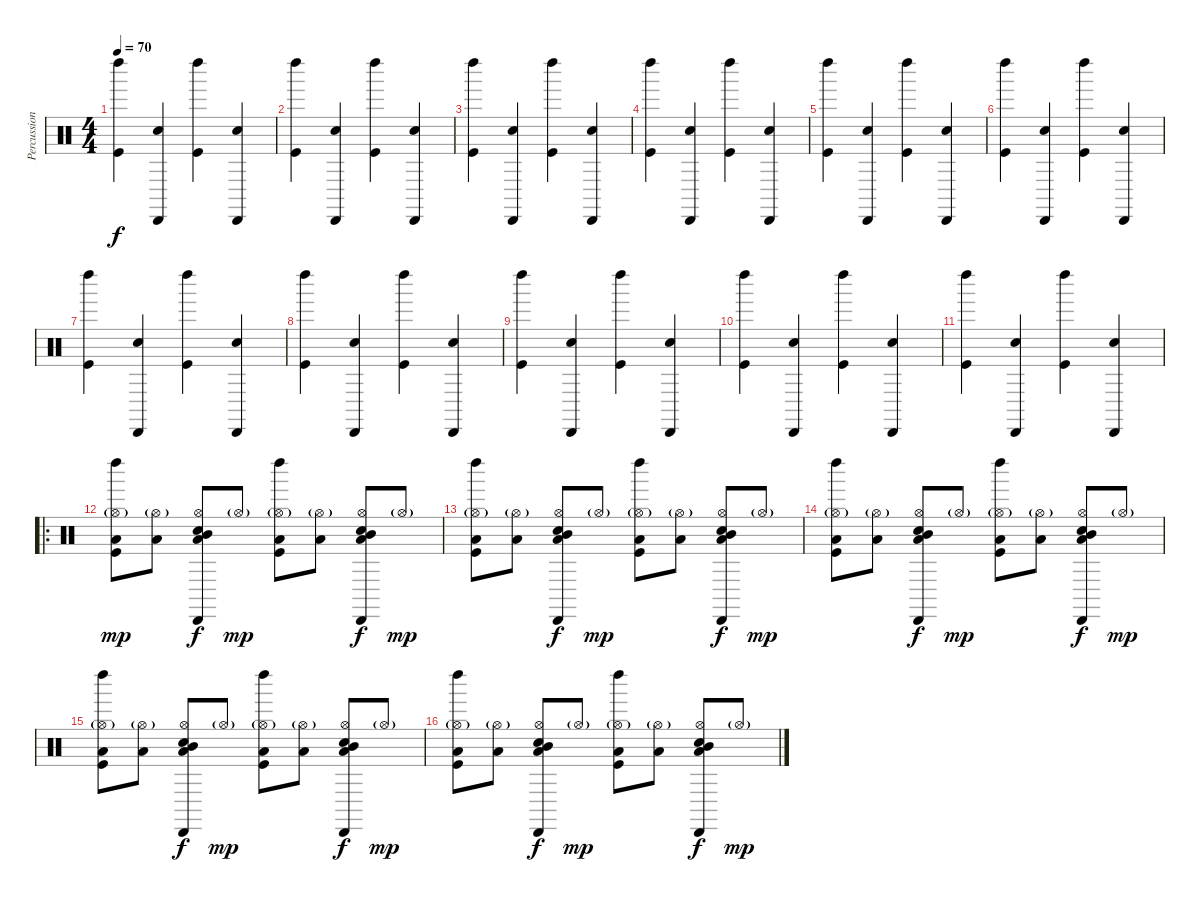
\track ("Percussions" "Percussion") {instrument percussion}
\staff {score}
\articulation defaults
\ts (4 4)
\tempo 70
\clef neutral
\ks c
("Left Maraca (hit)" "Kick (hit)").4{dy f} ("Cabasa (hit)" "Snare (hit) 2").4 ("Left Maraca (hit)" "Kick (hit)").4 ("Snare (hit) 2" "Cabasa (hit)").4 |
("Left Maraca (hit)" "Kick (hit)").4 ("Cabasa (hit)" "Snare (hit) 2").4 ("Left Maraca (hit)" "Kick (hit)").4 ("Snare (hit) 2" "Cabasa (hit)").4 |
("Left Maraca (hit)" "Kick (hit)").4 ("Cabasa (hit)" "Snare (hit) 2").4 ("Left Maraca (hit)" "Kick (hit)").4 ("Snare (hit) 2" "Cabasa (hit)").4 |
("Left Maraca (hit)" "Kick (hit)").4 ("Cabasa (hit)" "Snare (hit) 2").4 ("Left Maraca (hit)" "Kick (hit)").4 ("Snare (hit) 2" "Cabasa (hit)").4 |
("Left Maraca (hit)" "Kick (hit)").4 ("Cabasa (hit)" "Snare (hit) 2").4 ("Left Maraca (hit)" "Kick (hit)").4 ("Snare (hit) 2" "Cabasa (hit)").4 |
("Left Maraca (hit)" "Kick (hit)").4 ("Cabasa (hit)" "Snare (hit) 2").4 ("Left Maraca (hit)" "Kick (hit)").4 ("Snare (hit) 2" "Cabasa (hit)").4 |
("Left Maraca (hit)" "Kick (hit)").4 ("Cabasa (hit)" "Snare (hit) 2").4 ("Left Maraca (hit)" "Kick (hit)").4 ("Snare (hit) 2" "Cabasa (hit)").4 |
("Left Maraca (hit)" "Kick (hit)").4 ("Cabasa (hit)" "Snare (hit) 2").4 ("Left Maraca (hit)" "Kick (hit)").4 ("Snare (hit) 2" "Cabasa (hit)").4 |
("Left Maraca (hit)" "Kick (hit)").4 ("Cabasa (hit)" "Snare (hit) 2").4 ("Left Maraca (hit)" "Kick (hit)").4 ("Snare (hit) 2" "Cabasa (hit)").4 |
("Left Maraca (hit)" "Kick (hit)").4 ("Cabasa (hit)" "Snare (hit) 2").4 ("Left Maraca (hit)" "Kick (hit)").4 ("Snare (hit) 2" "Cabasa (hit)").4 |
("Left Maraca (hit)" "Kick (hit)").4 ("Cabasa (hit)" "Snare (hit) 2").4 ("Left Maraca (hit)" "Kick (hit)").4 ("Snare (hit) 2" "Cabasa (hit)").4 |
\ro
("Left Maraca (hit)" "Low Tom (hit)" "Kick (hit)" "Hi-Hat (open)"{g}).8{dy mp} ("Low Tom (hit)" "Hi-Hat (open)"{g}).8 ("Cabasa (hit)" "Mid Tom (hit)" "Snare (hit) 2" "Low Tom (hit)" "Hi-Hat (open)").8{dy f} "Hi-Hat (open)"{g}.8{dy mp} ("Left Maraca (hit)" "Low Tom (hit)" "Kick (hit)" "Hi-Hat (open)"{g}).8 ("Low Tom (hit)" "Hi-Hat (open)"{g}).8 ("Mid Tom (hit)" "Snare (hit) 2" "Cabasa (hit)" "Low Tom (hit)" "Hi-Hat (open)").8{dy f} "Hi-Hat (open)"{g}.8{dy mp} |
("Left Maraca (hit)" "Low Tom (hit)" "Kick (hit)" "Hi-Hat (open)"{g}).8 ("Low Tom (hit)" "Hi-Hat (open)"{g}).8 ("Cabasa (hit)" "Mid Tom (hit)" "Snare (hit) 2" "Low Tom (hit)" "Hi-Hat (open)").8{dy f} "Hi-Hat (open)"{g}.8{dy mp} ("Left Maraca (hit)" "Low Tom (hit)" "Kick (hit)" "Hi-Hat (open)"{g}).8 ("Low Tom (hit)" "Hi-Hat (open)"{g}).8 ("Mid Tom (hit)" "Snare (hit) 2" "Cabasa (hit)" "Low Tom (hit)" "Hi-Hat (open)").8{dy f} "Hi-Hat (open)"{g}.8{dy mp} |
("Left Maraca (hit)" "Low Tom (hit)" "Kick (hit)" "Hi-Hat (open)"{g}).8 ("Low Tom (hit)" "Hi-Hat (open)"{g}).8 ("Cabasa (hit)" "Mid Tom (hit)" "Snare (hit) 2" "Low Tom (hit)" "Hi-Hat (open)").8{dy f} "Hi-Hat (open)"{g}.8{dy mp} ("Left Maraca (hit)" "Low Tom (hit)" "Kick (hit)" "Hi-Hat (open)"{g}).8 ("Low Tom (hit)" "Hi-Hat (open)"{g}).8 ("Mid Tom (hit)" "Snare (hit) 2" "Cabasa (hit)" "Low Tom (hit)" "Hi-Hat (open)").8{dy f} "Hi-Hat (open)"{g}.8{dy mp} |
("Left Maraca (hit)" "Low Tom (hit)" "Kick (hit)" "Hi-Hat (open)"{g}).8 ("Low Tom (hit)" "Hi-Hat (open)"{g}).8 ("Cabasa (hit)" "Mid Tom (hit)" "Snare (hit) 2" "Low Tom (hit)" "Hi-Hat (open)").8{dy f} "Hi-Hat (open)"{g}.8{dy mp} ("Left Maraca (hit)" "Low Tom (hit)" "Kick (hit)" "Hi-Hat (open)"{g}).8 ("Low Tom (hit)" "Hi-Hat (open)"{g}).8 ("Mid Tom (hit)" "Snare (hit) 2" "Cabasa (hit)" "Low Tom (hit)" "Hi-Hat (open)").8{dy f} "Hi-Hat (open)"{g}.8{dy mp} |
("Left Maraca (hit)" "Low Tom (hit)" "Kick (hit)" "Hi-Hat (open)"{g}).8 ("Low Tom (hit)" "Hi-Hat (open)"{g}).8 ("Cabasa (hit)" "Mid Tom (hit)" "Snare (hit) 2" "Low Tom (hit)" "Hi-Hat (open)").8{dy f} "Hi-Hat (open)"{g}.8{dy mp} ("Left Maraca (hit)" "Low Tom (hit)" "Kick (hit)" "Hi-Hat (open)"{g}).8 ("Low Tom (hit)" "Hi-Hat (open)"{g}).8 ("Mid Tom (hit)" "Snare (hit) 2" "Cabasa (hit)" "Low Tom (hit)" "Hi-Hat (open)").8{dy f} "Hi-Hat (open)"{g}.8{dy mp}
